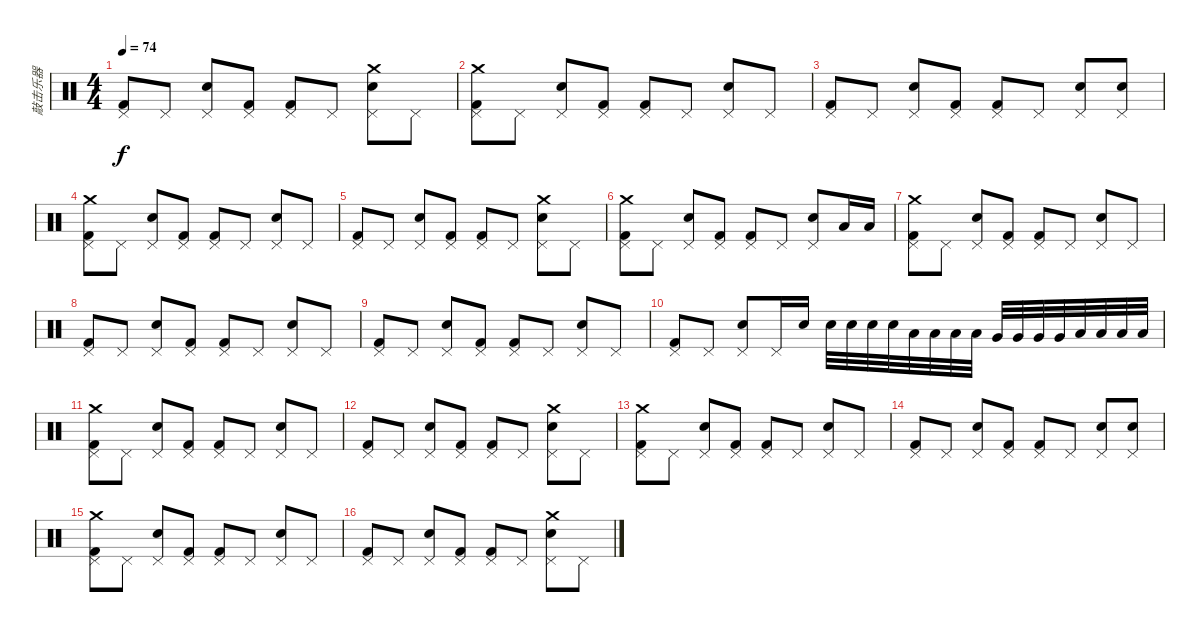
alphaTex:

\track ("敲击乐器" "敲击乐器") {instrument percussion}
\staff {score}
\articulation defaults
\ts (4 4)
\tempo 74
\clef neutral
\ks c
("Pedal Hi-Hat (hit)" "Kick (hit) 2").8{dy f} "Pedal Hi-Hat (hit)".8 ("Pedal Hi-Hat (hit)" "Electric Snare (hit)").8 ("Pedal Hi-Hat (hit)" "Kick (hit) 2").8 ("Pedal Hi-Hat (hit)" "Kick (hit) 2").8 "Pedal Hi-Hat (hit)".8 ("Pedal Hi-Hat (hit)" "Electric Snare (hit)" "Crash medium (hit)").8 "Pedal Hi-Hat (hit)".8 |
("Pedal Hi-Hat (hit)" "Kick (hit) 2" "Crash medium (hit)").8 "Pedal Hi-Hat (hit)".8 ("Pedal Hi-Hat (hit)" "Electric Snare (hit)").8 ("Pedal Hi-Hat (hit)" "Kick (hit) 2").8 ("Pedal Hi-Hat (hit)" "Kick (hit) 2").8 "Pedal Hi-Hat (hit)".8 ("Pedal Hi-Hat (hit)" "Electric Snare (hit)").8 "Pedal Hi-Hat (hit)".8 |
("Pedal Hi-Hat (hit)" "Kick (hit) 2").8 "Pedal Hi-Hat (hit)".8 ("Pedal Hi-Hat (hit)" "Electric Snare (hit)").8 ("Pedal Hi-Hat (hit)" "Kick (hit) 2").8 ("Pedal Hi-Hat (hit)" "Kick (hit) 2").8 "Pedal Hi-Hat (hit)".8 ("Pedal Hi-Hat (hit)" "Electric Snare (hit)").8 ("Pedal Hi-Hat (hit)" "Electric Snare (hit)").8 |
("Pedal Hi-Hat (hit)" "Kick (hit) 2" "Crash medium (hit)").8 "Pedal Hi-Hat (hit)".8 ("Pedal Hi-Hat (hit)" "Electric Snare (hit)").8 ("Pedal Hi-Hat (hit)" "Kick (hit) 2").8 ("Pedal Hi-Hat (hit)" "Kick (hit) 2").8 "Pedal Hi-Hat (hit)".8 ("Pedal Hi-Hat (hit)" "Electric Snare (hit)").8 "Pedal Hi-Hat (hit)".8 |
("Pedal Hi-Hat (hit)" "Kick (hit) 2").8 "Pedal Hi-Hat (hit)".8 ("Pedal Hi-Hat (hit)" "Electric Snare (hit)").8 ("Pedal Hi-Hat (hit)" "Kick (hit) 2").8 ("Pedal Hi-Hat (hit)" "Kick (hit) 2").8 "Pedal Hi-Hat (hit)".8 ("Pedal Hi-Hat (hit)" "Electric Snare (hit)" "Crash medium (hit)").8 "Pedal Hi-Hat (hit)".8 |
("Pedal Hi-Hat (hit)" "Kick (hit) 2" "Crash medium (hit)").8 "Pedal Hi-Hat (hit)".8 ("Pedal Hi-Hat (hit)" "Electric Snare (hit)").8 ("Pedal Hi-Hat (hit)" "Kick (hit) 2").8 ("Pedal Hi-Hat (hit)" "Kick (hit) 2").8 "Pedal Hi-Hat (hit)".8 ("Pedal Hi-Hat (hit)" "Electric Snare (hit)").8 "Low Tom (hit)".16 "Low Tom (hit)".16 |
("Pedal Hi-Hat (hit)" "Kick (hit) 2" "Crash medium (hit)").8 "Pedal Hi-Hat (hit)".8 ("Pedal Hi-Hat (hit)" "Electric Snare (hit)").8 ("Pedal Hi-Hat (hit)" "Kick (hit) 2").8 ("Pedal Hi-Hat (hit)" "Kick (hit) 2").8 "Pedal Hi-Hat (hit)".8 ("Pedal Hi-Hat (hit)" "Electric Snare (hit)").8 "Pedal Hi-Hat (hit)".8 |
("Pedal Hi-Hat (hit)" "Kick (hit) 2").8 "Pedal Hi-Hat (hit)".8 ("Pedal Hi-Hat (hit)" "Electric Snare (hit)").8 ("Pedal Hi-Hat (hit)" "Kick (hit) 2").8 ("Pedal Hi-Hat (hit)" "Kick (hit) 2").8 "Pedal Hi-Hat (hit)".8 ("Pedal Hi-Hat (hit)" "Electric Snare (hit)").8 "Pedal Hi-Hat (hit)".8 |
("Pedal Hi-Hat (hit)" "Kick (hit) 2").8 "Pedal Hi-Hat (hit)".8 ("Pedal Hi-Hat (hit)" "Electric Snare (hit)").8 ("Pedal Hi-Hat (hit)" "Kick (hit) 2").8 ("Pedal Hi-Hat (hit)" "Kick (hit) 2").8 "Pedal Hi-Hat (hit)".8 ("Pedal Hi-Hat (hit)" "Electric Snare (hit)").8 "Pedal Hi-Hat (hit)".8 |
("Pedal Hi-Hat (hit)" "Kick (hit) 2").8 "Pedal Hi-Hat (hit)".8 ("Pedal Hi-Hat (hit)" "Electric Snare (hit)").8 "Pedal Hi-Hat (hit)".16 "Electric Snare (hit)".16 "Electric Snare (hit)".32 "Electric Snare (hit)".32 "Electric Snare (hit)".32 "Electric Snare (hit)".32 "Low Floor Tom (hit)".32 "Low Floor Tom (hit)".32 "Low Floor Tom (hit)".32 "Low Floor Tom (hit)".32 "Very Low Tom (hit)".32 "Very Low Tom (hit)".32 "Very Low Tom (hit)".32 "Very Low Tom (hit)".32 "Low Tom (hit)".32 "Low Tom (hit)".32 "Low Tom (hit)".32 "Low Tom (hit)".32 |
("Pedal Hi-Hat (hit)" "Kick (hit) 2" "Crash medium (hit)").8 "Pedal Hi-Hat (hit)".8 ("Pedal Hi-Hat (hit)" "Electric Snare (hit)").8 ("Pedal Hi-Hat (hit)" "Kick (hit) 2").8 ("Pedal Hi-Hat (hit)" "Kick (hit) 2").8 "Pedal Hi-Hat (hit)".8 ("Pedal Hi-Hat (hit)" "Electric Snare (hit)").8 "Pedal Hi-Hat (hit)".8 |
("Pedal Hi-Hat (hit)" "Kick (hit) 2").8 "Pedal Hi-Hat (hit)".8 ("Pedal Hi-Hat (hit)" "Electric Snare (hit)").8 ("Pedal Hi-Hat (hit)" "Kick (hit) 2").8 ("Pedal Hi-Hat (hit)" "Kick (hit) 2").8 "Pedal Hi-Hat (hit)".8 ("Pedal Hi-Hat (hit)" "Electric Snare (hit)" "Crash medium (hit)").8 "Pedal Hi-Hat (hit)".8 |
("Pedal Hi-Hat (hit)" "Kick (hit) 2" "Crash medium (hit)").8 "Pedal Hi-Hat (hit)".8 ("Pedal Hi-Hat (hit)" "Electric Snare (hit)").8 ("Pedal Hi-Hat (hit)" "Kick (hit) 2").8 ("Pedal Hi-Hat (hit)" "Kick (hit) 2").8 "Pedal Hi-Hat (hit)".8 ("Pedal Hi-Hat (hit)" "Electric Snare (hit)").8 "Pedal Hi-Hat (hit)".8 |
("Pedal Hi-Hat (hit)" "Kick (hit) 2").8 "Pedal Hi-Hat (hit)".8 ("Pedal Hi-Hat (hit)" "Electric Snare (hit)").8 ("Pedal Hi-Hat (hit)" "Kick (hit) 2").8 ("Pedal Hi-Hat (hit)" "Kick (hit) 2").8 "Pedal Hi-Hat (hit)".8 ("Pedal Hi-Hat (hit)" "Electric Snare (hit)").8 ("Pedal Hi-Hat (hit)" "Electric Snare (hit)").8 |
("Pedal Hi-Hat (hit)" "Kick (hit) 2" "Crash medium (hit)").8 "Pedal Hi-Hat (hit)".8 ("Pedal Hi-Hat (hit)" "Electric Snare (hit)").8 ("Pedal Hi-Hat (hit)" "Kick (hit) 2").8 ("Pedal Hi-Hat (hit)" "Kick (hit) 2").8 "Pedal Hi-Hat (hit)".8 ("Pedal Hi-Hat (hit)" "Electric Snare (hit)").8 "Pedal Hi-Hat (hit)".8 |
("Pedal Hi-Hat (hit)" "Kick (hit) 2").8 "Pedal Hi-Hat (hit)".8 ("Pedal Hi-Hat (hit)" "Electric Snare (hit)").8 ("Pedal Hi-Hat (hit)" "Kick (hit) 2").8 ("Pedal Hi-Hat (hit)" "Kick (hit) 2").8 "Pedal Hi-Hat (hit)".8 ("Pedal Hi-Hat (hit)" "Electric Snare (hit)" "Crash medium (hit)").8 "Pedal Hi-Hat (hit)".8
